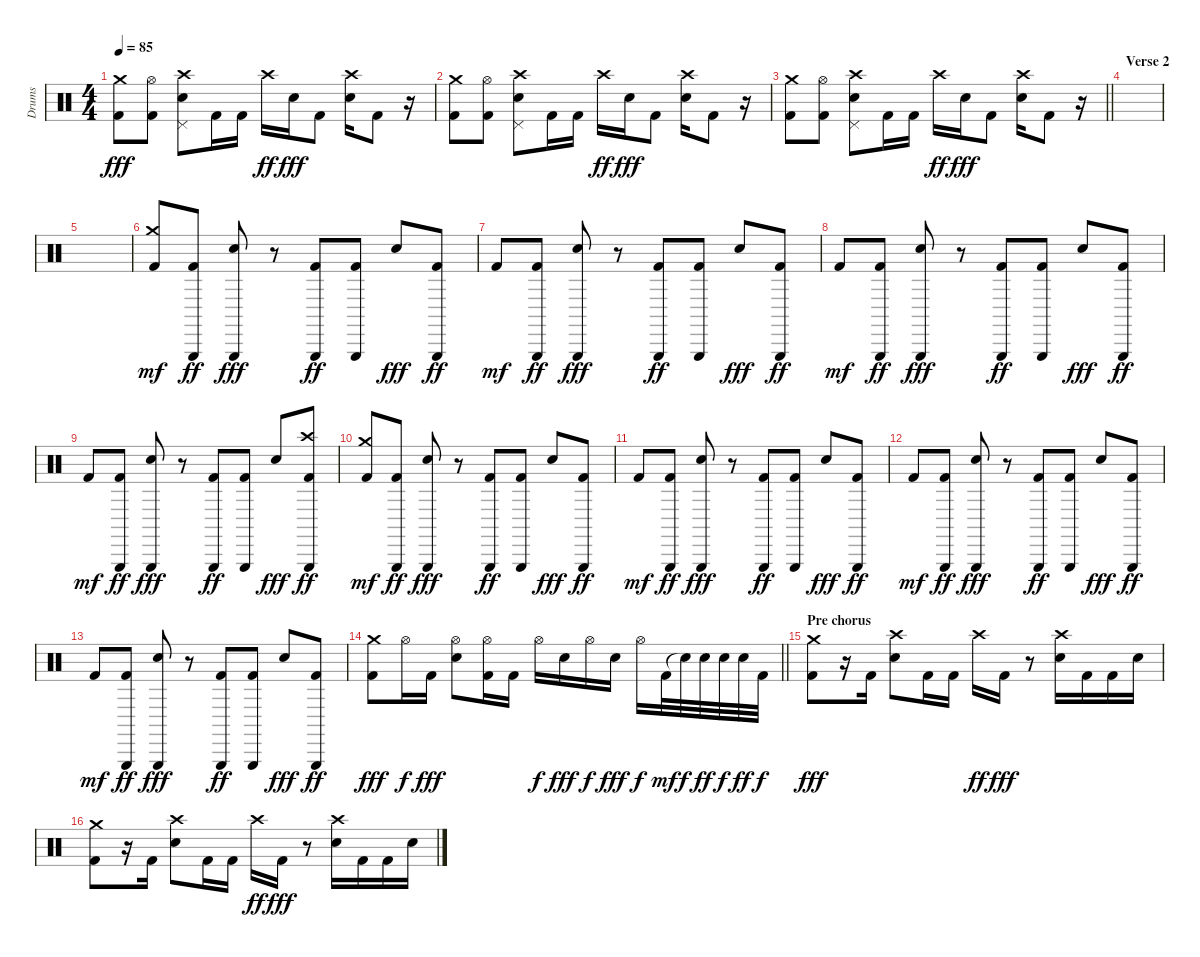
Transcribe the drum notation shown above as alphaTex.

\track ("Drums" "Drums") {instrument percussion}
\staff {score}
\articulation defaults
\ts (4 4)
\tempo 85
\clef neutral
\ks c
("Crash medium (hit)" "Kick (hit) 2").8{dy fff} ("Hi-Hat (open)" "Kick (hit) 2").8 ("Crash high (hit)" "Pedal Hi-Hat (hit)" "Electric Snare (hit)").8 "Kick (hit) 2".16 "Kick (hit) 2".16 "Crash high (hit)".16{dy ff} "Electric Snare (hit)".16{dy fff} "Kick (hit) 2".8 ("Crash high (hit)" "Electric Snare (hit)").16 "Kick (hit) 2".8 r.16 |
("Crash medium (hit)" "Kick (hit) 2").8 ("Hi-Hat (open)" "Kick (hit) 2").8 ("Crash high (hit)" "Pedal Hi-Hat (hit)" "Electric Snare (hit)").8 "Kick (hit) 2".16 "Kick (hit) 2".16 "Crash high (hit)".16{dy ff} "Electric Snare (hit)".16{dy fff} "Kick (hit) 2".8 ("Crash high (hit)" "Electric Snare (hit)").16 "Kick (hit) 2".8 r.16 |
\barLineRight lightlight
("Crash medium (hit)" "Kick (hit) 2").8 ("Hi-Hat (open)" "Kick (hit) 2").8 ("Crash high (hit)" "Pedal Hi-Hat (hit)" "Electric Snare (hit)").8 "Kick (hit) 2".16 "Kick (hit) 2".16 "Crash high (hit)".16{dy ff} "Electric Snare (hit)".16{dy fff} "Kick (hit) 2".8 ("Crash high (hit)" "Electric Snare (hit)").16 "Kick (hit) 2".8 r.16 |
\section ("" "Verse 2")
|
|
("Crash medium (hit)" "Kick (hit) 2").8{dy mf} ("Triangle (hit)" "Kick (hit) 2").8{dy ff} ("Triangle (hit)" "Electric Snare (hit)").8{dy fff} r.8 ("Triangle (hit)" "Kick (hit) 2").8{dy ff} ("Triangle (hit)" "Kick (hit) 2").8 "Electric Snare (hit)".8{dy fff} ("Triangle (hit)" "Kick (hit) 2").8{dy ff} |
"Kick (hit) 2".8{dy mf} ("Triangle (hit)" "Kick (hit) 2").8{dy ff} ("Triangle (hit)" "Electric Snare (hit)").8{dy fff} r.8 ("Triangle (hit)" "Kick (hit) 2").8{dy ff} ("Triangle (hit)" "Kick (hit) 2").8 "Electric Snare (hit)".8{dy fff} ("Triangle (hit)" "Kick (hit) 2").8{dy ff} |
"Kick (hit) 2".8{dy mf} ("Triangle (hit)" "Kick (hit) 2").8{dy ff} ("Triangle (hit)" "Electric Snare (hit)").8{dy fff} r.8 ("Triangle (hit)" "Kick (hit) 2").8{dy ff} ("Triangle (hit)" "Kick (hit) 2").8 "Electric Snare (hit)".8{dy fff} ("Triangle (hit)" "Kick (hit) 2").8{dy ff} |
"Kick (hit) 2".8{dy mf} ("Triangle (hit)" "Kick (hit) 2").8{dy ff} ("Triangle (hit)" "Electric Snare (hit)").8{dy fff} r.8 ("Triangle (hit)" "Kick (hit) 2").8{dy ff} ("Triangle (hit)" "Kick (hit) 2").8 "Electric Snare (hit)".8{dy fff} ("Crash high (hit)" "Triangle (hit)" "Kick (hit) 2").8{dy ff} |
("Crash medium (hit)" "Kick (hit) 2").8{dy mf} ("Triangle (hit)" "Kick (hit) 2").8{dy ff} ("Triangle (hit)" "Electric Snare (hit)").8{dy fff} r.8 ("Triangle (hit)" "Kick (hit) 2").8{dy ff} ("Triangle (hit)" "Kick (hit) 2").8 "Electric Snare (hit)".8{dy fff} ("Triangle (hit)" "Kick (hit) 2").8{dy ff} |
"Kick (hit) 2".8{dy mf} ("Triangle (hit)" "Kick (hit) 2").8{dy ff} ("Triangle (hit)" "Electric Snare (hit)").8{dy fff} r.8 ("Triangle (hit)" "Kick (hit) 2").8{dy ff} ("Triangle (hit)" "Kick (hit) 2").8 "Electric Snare (hit)".8{dy fff} ("Triangle (hit)" "Kick (hit) 2").8{dy ff} |
"Kick (hit) 2".8{dy mf} ("Triangle (hit)" "Kick (hit) 2").8{dy ff} ("Triangle (hit)" "Electric Snare (hit)").8{dy fff} r.8 ("Triangle (hit)" "Kick (hit) 2").8{dy ff} ("Triangle (hit)" "Kick (hit) 2").8 "Electric Snare (hit)".8{dy fff} ("Triangle (hit)" "Kick (hit) 2").8{dy ff} |
"Kick (hit) 2".8{dy mf} ("Triangle (hit)" "Kick (hit) 2").8{dy ff} ("Triangle (hit)" "Electric Snare (hit)").8{dy fff} r.8 ("Triangle (hit)" "Kick (hit) 2").8{dy ff} ("Triangle (hit)" "Kick (hit) 2").8 "Electric Snare (hit)".8{dy fff} ("Triangle (hit)" "Kick (hit) 2").8{dy ff} |
\barLineRight lightlight
("Crash medium (hit)" "Kick (hit) 2").8{dy fff} "Hi-Hat (open)".16{dy f} "Kick (hit) 2".16{dy fff} ("Hi-Hat (open)" "Electric Snare (hit)").8 ("Hi-Hat (open)" "Kick (hit) 2").16 "Kick (hit) 2".16 "Hi-Hat (open)".16{dy f} "Electric Snare (hit)".16{dy fff} "Hi-Hat (open)".16{dy f} "Electric Snare (hit)".16{dy fff} "Hi-Hat (open)".16{dy f} "Kick (hit) 2".32{dy mf} "Snare (hit)"{t}.32{dy f} "Electric Snare (hit)".32{dy ff} "Electric Snare (hit)".32{dy f} "Electric Snare (hit)".32{dy ff} "Kick (hit) 2".32{dy f} |
\section ("" "Pre chorus")
("Crash medium (hit)" "Kick (hit) 2").8{dy fff} r.16 "Kick (hit) 2".16 ("Crash high (hit)" "Electric Snare (hit)").8 "Kick (hit) 2".16 "Kick (hit) 2".16 "Crash high (hit)".16{dy ff} "Kick (hit) 2".16{dy fff} r.8 ("Crash high (hit)" "Electric Snare (hit)").16 "Kick (hit) 2".16 "Kick (hit) 2".16 "Electric Snare (hit)".16 |
("Crash medium (hit)" "Kick (hit) 2").8 r.16 "Kick (hit) 2".16 ("Crash high (hit)" "Electric Snare (hit)").8 "Kick (hit) 2".16 "Kick (hit) 2".16 "Crash high (hit)".16{dy ff} "Kick (hit) 2".16{dy fff} r.8 ("Crash high (hit)" "Electric Snare (hit)").16 "Kick (hit) 2".16 "Kick (hit) 2".16 "Electric Snare (hit)".16
